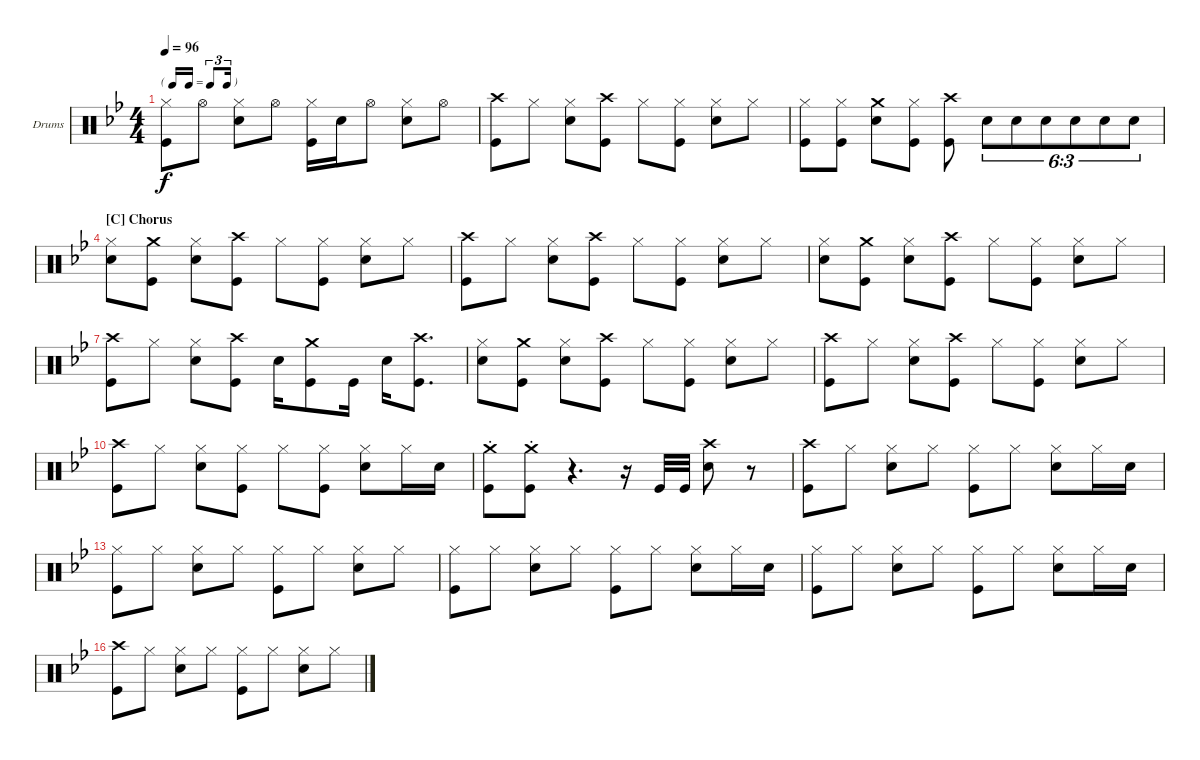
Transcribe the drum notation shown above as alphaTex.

\bracketExtendMode nobrackets
\firstSystemTrackNameOrientation horizontal
\otherSystemsTrackNameOrientation horizontal
\defaultBarNumberDisplay FirstOfSystem
\track ("Randy Castillo" "Drums") {instrument percussion}
\staff {score}
\articulation defaults
\ts (4 4)
\tf triplet16th
\tempo 96
\clef neutral
\ks bb
("Kick (hit)" "Hi-Hat (closed)").8{dy f} "Hi-Hat (open)".8 ("Hi-Hat (closed)" "Snare (hit) 2").8 "Hi-Hat (open)".8 ("Hi-Hat (closed)" "Kick (hit)").16 "Snare (hit) 2".16 "Hi-Hat (open)".8 ("Snare (hit) 2" "Hi-Hat (closed)").8 "Hi-Hat (open)".8 |
("Kick (hit)" "Crash high (hit)").8 "Hi-Hat (closed)".8 ("Hi-Hat (closed)" "Snare (hit) 2").8 ("Kick (hit)" "Crash high (hit)").8 "Hi-Hat (closed)".8 ("Hi-Hat (closed)" "Kick (hit)").8 ("Hi-Hat (closed)" "Snare (hit) 2").8 "Hi-Hat (closed)".8 |
("Kick (hit)" "Hi-Hat (closed)").8 ("Hi-Hat (closed)" "Kick (hit)").8 ("Snare (hit) 2" "Crash medium (hit)").8 ("Hi-Hat (closed)" "Kick (hit)").8 ("Kick (hit)" "Crash high (hit)").8 "Snare (hit) 2".8{tu (6 3)} "Snare (hit) 2".8{tu (6 3)} "Snare (hit) 2".8{tu (6 3)} "Snare (hit) 2".8{tu (6 3)} "Snare (hit) 2".8{tu (6 3)} "Snare (hit) 2".8{tu (6 3)} |
\section ("C" "Chorus")
("Snare (hit) 2" "Hi-Hat (closed)").8 ("Kick (hit)" "Crash medium (hit)").8 ("Snare (hit) 2" "Hi-Hat (closed)").8 ("Kick (hit)" "Crash high (hit)").8 "Hi-Hat (closed)".8 ("Kick (hit)" "Hi-Hat (closed)").8 ("Snare (hit) 2" "Hi-Hat (closed)").8 "Hi-Hat (closed)".8 |
("Kick (hit)" "Crash high (hit)").8 "Hi-Hat (closed)".8 ("Hi-Hat (closed)" "Snare (hit) 2").8 ("Kick (hit)" "Crash high (hit)").8 "Hi-Hat (closed)".8 ("Hi-Hat (closed)" "Kick (hit)").8 ("Hi-Hat (closed)" "Snare (hit) 2").8 "Hi-Hat (closed)".8 |
("Snare (hit) 2" "Hi-Hat (closed)").8 ("Kick (hit)" "Crash medium (hit)").8 ("Snare (hit) 2" "Hi-Hat (closed)").8 ("Kick (hit)" "Crash high (hit)").8 "Hi-Hat (closed)".8 ("Kick (hit)" "Hi-Hat (closed)").8 ("Snare (hit) 2" "Hi-Hat (closed)").8 "Hi-Hat (closed)".8 |
("Kick (hit)" "Crash high (hit)").8 "Hi-Hat (closed)".8 ("Hi-Hat (closed)" "Snare (hit) 2").8 ("Kick (hit)" "Crash high (hit)").8 "Snare (hit) 2".16 ("Kick (hit)" "Crash medium (hit)").8 "Kick (hit)".16 "Snare (hit) 2".16 ("Kick (hit)" "Crash high (hit)").8{d} |
("Snare (hit) 2" "Hi-Hat (closed)").8 ("Kick (hit)" "Crash medium (hit)").8 ("Snare (hit) 2" "Hi-Hat (closed)").8 ("Kick (hit)" "Crash high (hit)").8 "Hi-Hat (closed)".8 ("Kick (hit)" "Hi-Hat (closed)").8 ("Snare (hit) 2" "Hi-Hat (closed)").8 "Hi-Hat (closed)".8 |
("Kick (hit)" "Crash high (hit)").8 "Hi-Hat (closed)".8 ("Hi-Hat (closed)" "Snare (hit) 2").8 ("Kick (hit)" "Crash high (hit)").8 "Hi-Hat (closed)".8 ("Hi-Hat (closed)" "Kick (hit)").8 ("Hi-Hat (closed)" "Snare (hit) 2").8 "Hi-Hat (closed)".8 |
("Kick (hit)" "Crash high (hit)").8 "Hi-Hat (closed)".8 ("Hi-Hat (closed)" "Snare (hit) 2").8 ("Kick (hit)" "Hi-Hat (closed)").8 "Hi-Hat (closed)".8 ("Hi-Hat (closed)" "Kick (hit)").8 ("Hi-Hat (closed)" "Snare (hit) 2").8 "Hi-Hat (closed)".16 "Snare (hit) 2".16 |
("Kick (hit)" "Crash medium (hit)"{st}).8 ("Kick (hit)"{st} "Crash medium (hit)"{st}).8 r.4{d} r.16 "Kick (hit)".32 "Kick (hit)".32 ("Snare (hit) 2" "Crash high (hit)").8 r.8 |
("Kick (hit)" "Crash high (hit)").8 "Hi-Hat (closed)".8 ("Hi-Hat (closed)" "Snare (hit) 2").8 "Hi-Hat (closed)".8 ("Hi-Hat (closed)" "Kick (hit)").8 "Hi-Hat (closed)".8 ("Hi-Hat (closed)" "Snare (hit) 2").8 "Hi-Hat (closed)".16 "Snare (hit) 2".16 |
("Kick (hit)" "Hi-Hat (closed)").8 "Hi-Hat (closed)".8 ("Hi-Hat (closed)" "Snare (hit) 2").8 "Hi-Hat (closed)".8 ("Hi-Hat (closed)" "Kick (hit)").8 "Hi-Hat (closed)".8 ("Hi-Hat (closed)" "Snare (hit) 2").8 "Hi-Hat (closed)".8 |
("Kick (hit)" "Hi-Hat (closed)").8 "Hi-Hat (closed)".8 ("Hi-Hat (closed)" "Snare (hit) 2").8 "Hi-Hat (closed)".8 ("Hi-Hat (closed)" "Kick (hit)").8 "Hi-Hat (closed)".8 ("Hi-Hat (closed)" "Snare (hit) 2").8 "Hi-Hat (closed)".16 "Snare (hit) 2".16 |
("Kick (hit)" "Hi-Hat (closed)").8 "Hi-Hat (closed)".8 ("Hi-Hat (closed)" "Snare (hit) 2").8 "Hi-Hat (closed)".8 ("Hi-Hat (closed)" "Kick (hit)").8 "Hi-Hat (closed)".8 ("Hi-Hat (closed)" "Snare (hit) 2").8 "Hi-Hat (closed)".16 "Snare (hit) 2".16 |
\scale
0.476228 ("Kick (hit)" "Crash high (hit)").8 "Hi-Hat (closed)".8 ("Hi-Hat (closed)" "Snare (hit) 2").8 "Hi-Hat (closed)".8 ("Hi-Hat (closed)" "Kick (hit)").8 "Hi-Hat (closed)".8 ("Hi-Hat (closed)" "Snare (hit) 2").8 "Hi-Hat (closed)".8
